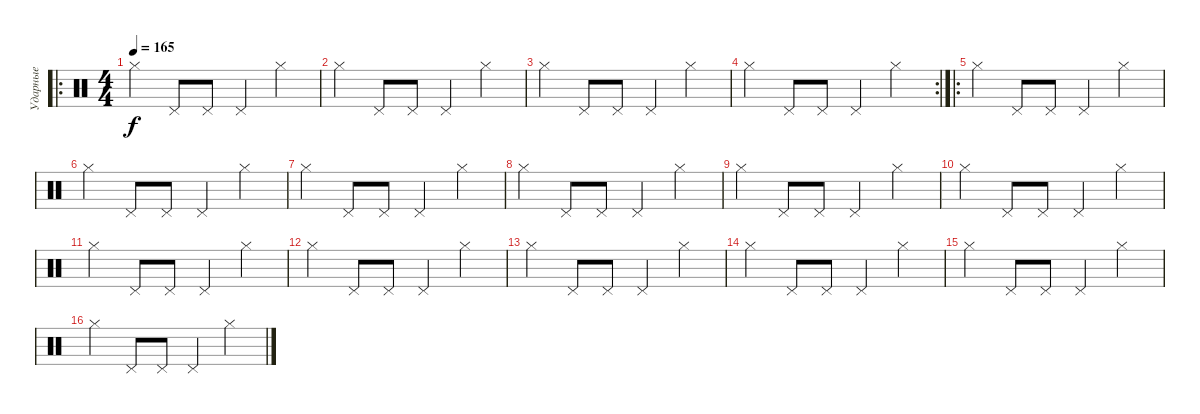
\track ("Ударные" "Ударные") {instrument percussion}
\staff {score}
\articulation defaults
\ro
\ts (4 4)
\tempo 165
\clef neutral
\ks c "Hi-Hat (closed)".4{dy f} "Pedal Hi-Hat (hit)".8 "Pedal Hi-Hat (hit)".8 "Pedal Hi-Hat (hit)".4 "Hi-Hat (closed)".4
|
"Hi-Hat (closed)".4 "Pedal Hi-Hat (hit)".8 "Pedal Hi-Hat (hit)".8 "Pedal Hi-Hat (hit)".4 "Hi-Hat (closed)".4 |
"Hi-Hat (closed)".4 "Pedal Hi-Hat (hit)".8 "Pedal Hi-Hat (hit)".8 "Pedal Hi-Hat (hit)".4 "Hi-Hat (closed)".4 |
\rc 2 "Hi-Hat (closed)".4 "Pedal Hi-Hat (hit)".8 "Pedal Hi-Hat (hit)".8 "Pedal Hi-Hat (hit)".4 "Hi-Hat (closed)".4
|
\ro "Hi-Hat (closed)".4 "Pedal Hi-Hat (hit)".8 "Pedal Hi-Hat (hit)".8 "Pedal Hi-Hat (hit)".4 "Hi-Hat (closed)".4
|
"Hi-Hat (closed)".4 "Pedal Hi-Hat (hit)".8 "Pedal Hi-Hat (hit)".8 "Pedal Hi-Hat (hit)".4 "Hi-Hat (closed)".4 |
"Hi-Hat (closed)".4 "Pedal Hi-Hat (hit)".8 "Pedal Hi-Hat (hit)".8 "Pedal Hi-Hat (hit)".4 "Hi-Hat (closed)".4 |
"Hi-Hat (closed)".4 "Pedal Hi-Hat (hit)".8 "Pedal Hi-Hat (hit)".8 "Pedal Hi-Hat (hit)".4 "Hi-Hat (closed)".4 |
"Hi-Hat (closed)".4 "Pedal Hi-Hat (hit)".8 "Pedal Hi-Hat (hit)".8 "Pedal Hi-Hat (hit)".4 "Hi-Hat (closed)".4 |
"Hi-Hat (closed)".4 "Pedal Hi-Hat (hit)".8 "Pedal Hi-Hat (hit)".8 "Pedal Hi-Hat (hit)".4 "Hi-Hat (closed)".4 |
"Hi-Hat (closed)".4 "Pedal Hi-Hat (hit)".8 "Pedal Hi-Hat (hit)".8 "Pedal Hi-Hat (hit)".4 "Hi-Hat (closed)".4 |
"Hi-Hat (closed)".4 "Pedal Hi-Hat (hit)".8 "Pedal Hi-Hat (hit)".8 "Pedal Hi-Hat (hit)".4 "Hi-Hat (closed)".4 |
"Hi-Hat (closed)".4 "Pedal Hi-Hat (hit)".8 "Pedal Hi-Hat (hit)".8 "Pedal Hi-Hat (hit)".4 "Hi-Hat (closed)".4 |
"Hi-Hat (closed)".4 "Pedal Hi-Hat (hit)".8 "Pedal Hi-Hat (hit)".8 "Pedal Hi-Hat (hit)".4 "Hi-Hat (closed)".4 |
"Hi-Hat (closed)".4 "Pedal Hi-Hat (hit)".8 "Pedal Hi-Hat (hit)".8 "Pedal Hi-Hat (hit)".4 "Hi-Hat (closed)".4 |
"Hi-Hat (closed)".4 "Pedal Hi-Hat (hit)".8 "Pedal Hi-Hat (hit)".8 "Pedal Hi-Hat (hit)".4 "Hi-Hat (closed)".4
